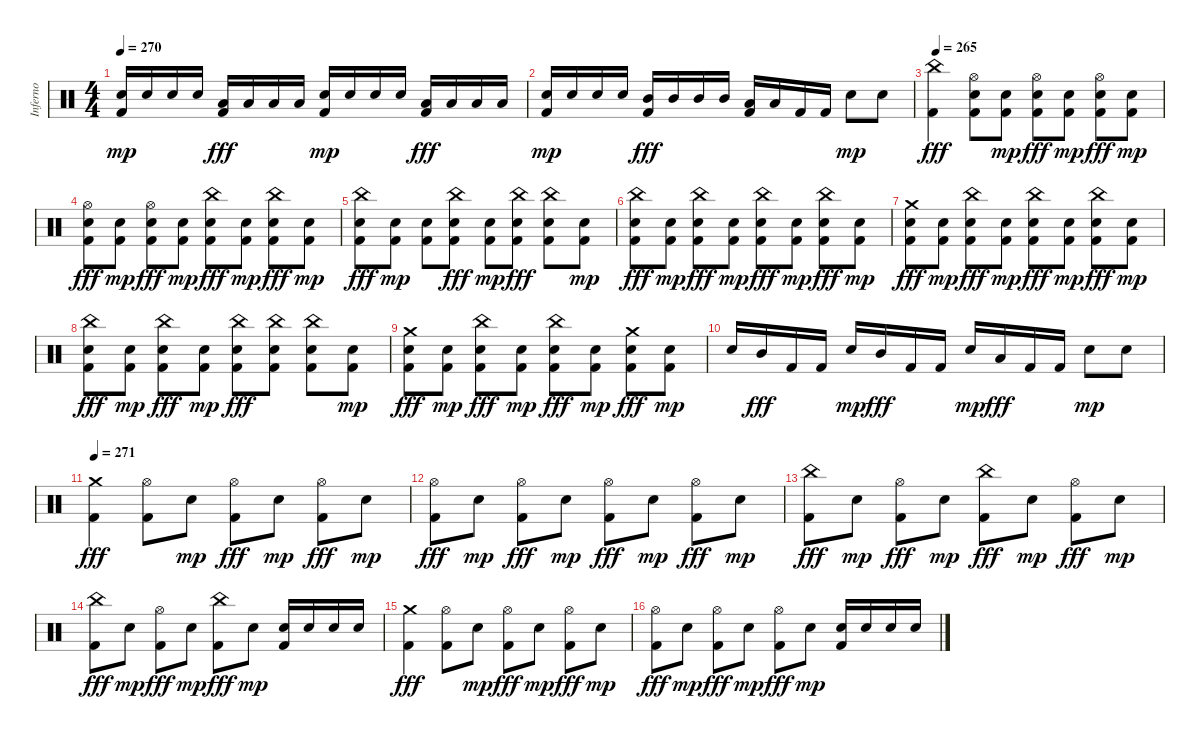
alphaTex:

\track ("Inferno" "Inferno") {instrument percussion}
\staff {score}
\articulation defaults
\ts (4 4)
\tempo 270
\clef neutral
\ks c
("Kick (hit) 2" "Electric Snare (hit)").16{dy mp} "Electric Snare (hit)".16 "Electric Snare (hit)".16 "Electric Snare (hit)".16 ("Kick (hit) 2" "Low Tom (hit)").16{dy fff} "Low Tom (hit)".16 "Low Tom (hit)".16 "Low Tom (hit)".16 ("Kick (hit) 2" "Electric Snare (hit)").16{dy mp} "Electric Snare (hit)".16 "Electric Snare (hit)".16 "Electric Snare (hit)".16 ("Kick (hit) 2" "Low Tom (hit)").16{dy fff} "Low Tom (hit)".16 "Low Tom (hit)".16 "Low Tom (hit)".16 |
("Kick (hit) 2" "Electric Snare (hit)").16{dy mp} "Electric Snare (hit)".16 "Electric Snare (hit)".16 "Electric Snare (hit)".16 ("Kick (hit) 2" "Mid Tom (hit)").16{dy fff} "Mid Tom (hit)".16 "Mid Tom (hit)".16 "Mid Tom (hit)".16 ("Kick (hit) 2" "Low Tom (hit)").16 "Low Tom (hit)".16 "Kick (hit) 2".16 "Kick (hit) 2".16 "Electric Snare (hit)".8{dy mp} "Electric Snare (hit)".8 |
\tempo 265
("Kick (hit) 2" "China (hit)").4{dy fff} ("Kick (hit) 2" "Electric Snare (hit)" "Hi-Hat (open)").8 ("Kick (hit) 2" "Electric Snare (hit)").8{dy mp} ("Kick (hit) 2" "Electric Snare (hit)" "Hi-Hat (open)").8{dy fff} ("Kick (hit) 2" "Electric Snare (hit)").8{dy mp} ("Kick (hit) 2" "Electric Snare (hit)" "Hi-Hat (open)").8{dy fff} ("Kick (hit) 2" "Electric Snare (hit)").8{dy mp} |
("Kick (hit) 2" "Electric Snare (hit)" "Hi-Hat (open)").8{dy fff} ("Kick (hit) 2" "Electric Snare (hit)").8{dy mp} ("Kick (hit) 2" "Electric Snare (hit)" "Hi-Hat (open)").8{dy fff} ("Kick (hit) 2" "Electric Snare (hit)").8{dy mp} ("Kick (hit) 2" "Electric Snare (hit)" "China (hit)").8{dy fff} ("Kick (hit) 2" "Electric Snare (hit)").8{dy mp} ("Kick (hit) 2" "Electric Snare (hit)" "China (hit)").8{dy fff} ("Kick (hit) 2" "Electric Snare (hit)").8{dy mp} |
("Kick (hit) 2" "Electric Snare (hit)" "China (hit)").8{dy fff} ("Kick (hit) 2" "Electric Snare (hit)").8{dy mp} ("Kick (hit) 2" "Electric Snare (hit)").8 ("Kick (hit) 2" "Electric Snare (hit)" "China (hit)").8{dy fff} ("Kick (hit) 2" "Electric Snare (hit)").8{dy mp} ("Kick (hit) 2" "Electric Snare (hit)" "China (hit)").8{dy fff} ("Kick (hit) 2" "Electric Snare (hit)" "China (hit)").8 ("Kick (hit) 2" "Electric Snare (hit)").8{dy mp} |
("Kick (hit) 2" "Electric Snare (hit)" "China (hit)").8{dy fff} ("Kick (hit) 2" "Electric Snare (hit)").8{dy mp} ("Kick (hit) 2" "Electric Snare (hit)" "China (hit)").8{dy fff} ("Kick (hit) 2" "Electric Snare (hit)").8{dy mp} ("Kick (hit) 2" "Electric Snare (hit)" "China (hit)").8{dy fff} ("Kick (hit) 2" "Electric Snare (hit)").8{dy mp} ("Kick (hit) 2" "Electric Snare (hit)" "China (hit)").8{dy fff} ("Kick (hit) 2" "Electric Snare (hit)").8{dy mp} |
("Kick (hit) 2" "Electric Snare (hit)" "Crash medium (hit)").8{dy fff} ("Kick (hit) 2" "Electric Snare (hit)").8{dy mp} ("Kick (hit) 2" "Electric Snare (hit)" "China (hit)").8{dy fff} ("Kick (hit) 2" "Electric Snare (hit)").8{dy mp} ("Kick (hit) 2" "Electric Snare (hit)" "China (hit)").8{dy fff} ("Kick (hit) 2" "Electric Snare (hit)").8{dy mp} ("Kick (hit) 2" "Electric Snare (hit)" "China (hit)").8{dy fff} ("Kick (hit) 2" "Electric Snare (hit)").8{dy mp} |
("Kick (hit) 2" "Electric Snare (hit)" "China (hit)").8{dy fff} ("Kick (hit) 2" "Electric Snare (hit)").8{dy mp} ("Kick (hit) 2" "Electric Snare (hit)" "China (hit)").8{dy fff} ("Kick (hit) 2" "Electric Snare (hit)").8{dy mp} ("Kick (hit) 2" "Electric Snare (hit)" "China (hit)").8{dy fff} ("Kick (hit) 2" "Electric Snare (hit)" "China (hit)").8 ("Kick (hit) 2" "Electric Snare (hit)" "China (hit)").8 ("Kick (hit) 2" "Electric Snare (hit)").8{dy mp} |
("Kick (hit) 2" "Electric Snare (hit)" "Crash medium (hit)").8{dy fff} ("Kick (hit) 2" "Electric Snare (hit)").8{dy mp} ("Kick (hit) 2" "Electric Snare (hit)" "China (hit)").8{dy fff} ("Kick (hit) 2" "Electric Snare (hit)").8{dy mp} ("Kick (hit) 2" "Electric Snare (hit)" "China (hit)").8{dy fff} ("Kick (hit) 2" "Electric Snare (hit)").8{dy mp} ("Kick (hit) 2" "Electric Snare (hit)" "Crash medium (hit)").8{dy fff} ("Kick (hit) 2" "Electric Snare (hit)").8{dy mp} |
"Electric Snare (hit)".16 "Mid Tom (hit)".16{dy fff} "Kick (hit) 2".16 "Kick (hit) 2".16 "Electric Snare (hit)".16{dy mp} "Mid Tom (hit)".16{dy fff} "Kick (hit) 2".16 "Kick (hit) 2".16 "Electric Snare (hit)".16{dy mp} "Low Tom (hit)".16{dy fff} "Kick (hit) 2".16 "Kick (hit) 2".16 "Electric Snare (hit)".8{dy mp} "Electric Snare (hit)".8 |
\tempo 271
("Kick (hit) 2" "Crash medium (hit)").4{dy fff} ("Kick (hit) 2" "Hi-Hat (open)").8 "Electric Snare (hit)".8{dy mp} ("Kick (hit) 2" "Hi-Hat (open)").8{dy fff} "Electric Snare (hit)".8{dy mp} ("Kick (hit) 2" "Hi-Hat (open)").8{dy fff} "Electric Snare (hit)".8{dy mp} |
("Kick (hit) 2" "Hi-Hat (open)").8{dy fff} "Electric Snare (hit)".8{dy mp} ("Kick (hit) 2" "Hi-Hat (open)").8{dy fff} "Electric Snare (hit)".8{dy mp} ("Kick (hit) 2" "Hi-Hat (open)").8{dy fff} "Electric Snare (hit)".8{dy mp} ("Kick (hit) 2" "Hi-Hat (open)").8{dy fff} "Electric Snare (hit)".8{dy mp} |
("Kick (hit) 2" "China (hit)").8{dy fff} "Electric Snare (hit)".8{dy mp} ("Kick (hit) 2" "Hi-Hat (open)").8{dy fff} "Electric Snare (hit)".8{dy mp} ("Kick (hit) 2" "China (hit)").8{dy fff} "Electric Snare (hit)".8{dy mp} ("Kick (hit) 2" "Hi-Hat (open)").8{dy fff} "Electric Snare (hit)".8{dy mp} |
("Kick (hit) 2" "China (hit)").8{dy fff} "Electric Snare (hit)".8{dy mp} ("Kick (hit) 2" "Hi-Hat (open)").8{dy fff} "Electric Snare (hit)".8{dy mp} ("Kick (hit) 2" "China (hit)").8{dy fff} "Electric Snare (hit)".8{dy mp} ("Kick (hit) 2" "Electric Snare (hit)").16 "Electric Snare (hit)".16 "Electric Snare (hit)".16 "Electric Snare (hit)".16 |
("Kick (hit) 2" "Crash medium (hit)").4{dy fff} ("Kick (hit) 2" "Hi-Hat (open)").8 "Electric Snare (hit)".8{dy mp} ("Kick (hit) 2" "Hi-Hat (open)").8{dy fff} "Electric Snare (hit)".8{dy mp} ("Kick (hit) 2" "Hi-Hat (open)").8{dy fff} "Electric Snare (hit)".8{dy mp} |
("Kick (hit) 2" "Hi-Hat (open)").8{dy fff} "Electric Snare (hit)".8{dy mp} ("Kick (hit) 2" "Hi-Hat (open)").8{dy fff} "Electric Snare (hit)".8{dy mp} ("Kick (hit) 2" "Hi-Hat (open)").8{dy fff} "Electric Snare (hit)".8{dy mp} ("Kick (hit) 2" "Electric Snare (hit)").16 "Electric Snare (hit)".16 "Electric Snare (hit)".16 "Electric Snare (hit)".16
